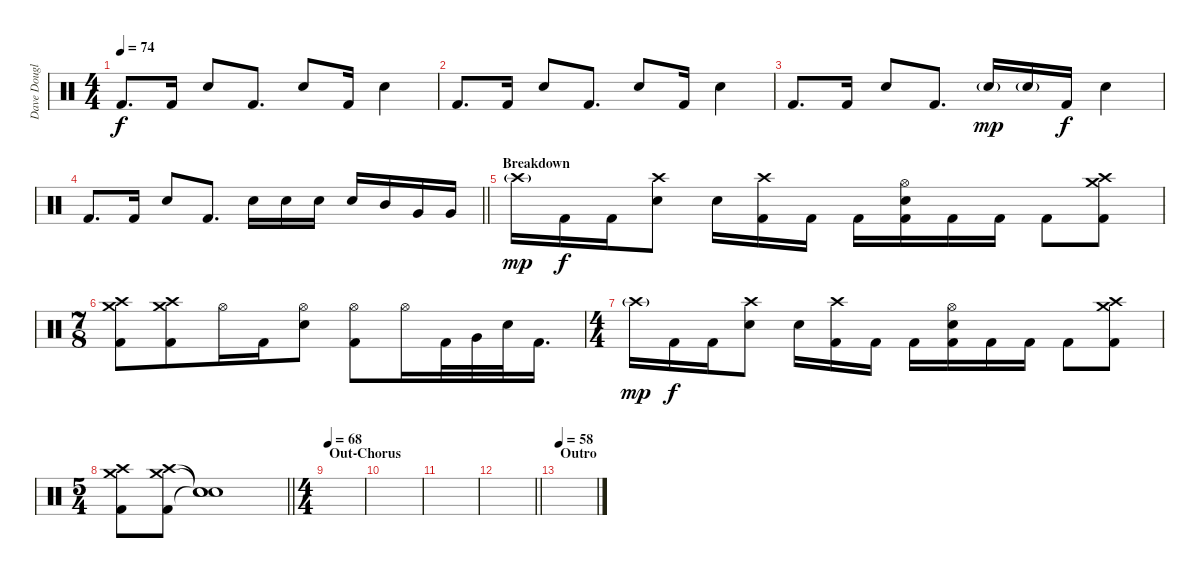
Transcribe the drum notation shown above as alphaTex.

\track ("Dave Douglas - Drums" "Dave Dougl") {instrument percussion}
\staff {score}
\articulation defaults
\ts (4 4)
\tempo 74
\clef neutral
\ks c "Kick (hit) 2".8{d dy f} "Kick (hit) 2".16 "Snare (hit) 2".8 "Kick (hit) 2".8{d} "Snare (hit) 2".8 "Kick (hit) 2".16 "Snare (hit) 2".4
|
"Kick (hit) 2".8{d} "Kick (hit) 2".16 "Snare (hit) 2".8 "Kick (hit) 2".8{d} "Snare (hit) 2".8 "Kick (hit) 2".16 "Snare (hit) 2".4 |
"Kick (hit) 2".8{d} "Kick (hit) 2".16 "Snare (hit) 2".8 "Kick (hit) 2".8{d} "Electric Snare (hit)"{g}.16{dy mp} "Electric Snare (hit)"{g}.16 "Kick (hit) 2".16{dy f} "Snare (hit) 2".4 |
\barLineRight lightlight "Kick (hit) 2".8{d} "Kick (hit) 2".16 "Snare (hit) 2".8 "Kick (hit) 2".8{d} "Snare (hit) 2".16 "Snare (hit) 2".16 "Snare (hit) 2".16 "Snare (hit) 2".16 "Mid Tom (hit)".16 "Very Low Tom (hit)".16 "Very Low Tom (hit)".16
|
\section ("" "Breakdown")
"Crash high (hit)"{g}.16{dy mp} "Kick (hit) 2".16{dy f} "Kick (hit) 2".16 ("Crash high (hit)" "Snare (hit) 2").8 "Snare (hit) 2".16 ("Crash high (hit)" "Kick (hit) 2").16 "Kick (hit) 2".16 "Kick (hit) 2".16 ("Hi-Hat (open)" "Snare (hit) 2" "Kick (hit) 2").16 "Kick (hit) 2".16 "Kick (hit) 2".16 "Kick (hit) 2".8 ("Crash medium (hit)" "Crash high (hit)" "Kick (hit) 2").8 |
\ts (7 8)
("Crash high (hit)" "Crash medium (hit)" "Kick (hit) 2").8 ("Crash high (hit)" "Crash medium (hit)" "Kick (hit) 2").8 "Hi-Hat (open)".16 "Kick (hit) 2".16 ("Hi-Hat (open)" "Snare (hit) 2").8 ("Hi-Hat (open)" "Kick (hit) 2").8 "Hi-Hat (open)".16 "Kick (hit) 2".32 "Very Low Tom (hit)".32 "Snare (hit) 2".32 "Kick (hit) 2".16{d} |
\ts (4 4)
"Crash high (hit)"{g}.16{dy mp} "Kick (hit) 2".16{dy f} "Kick (hit) 2".16 ("Crash high (hit)" "Snare (hit) 2").8 "Snare (hit) 2".16 ("Crash high (hit)" "Kick (hit) 2").16 "Kick (hit) 2".16 "Kick (hit) 2".16 ("Hi-Hat (open)" "Snare (hit) 2" "Kick (hit) 2").16 "Kick (hit) 2".16 "Kick (hit) 2".16 "Kick (hit) 2".8 ("Crash high (hit)" "Crash medium (hit)" "Kick (hit) 2").8 |
\ts (5 4)
\barLineRight lightlight
("Crash high (hit)" "Crash medium (hit)" "Kick (hit) 2").8 ("Crash high (hit)" "Crash medium (hit)" "Kick (hit) 2").8 ("Snare (hit)"{t} "Snare (hit)"{t} "Snare (hit)"{t}).1 |
\ts (4 4)
\section ("" "Out-Chorus")
\tempo 68
|
|
|
\barLineRight lightlight
|
\section ("" "Outro")
\tempo 58
